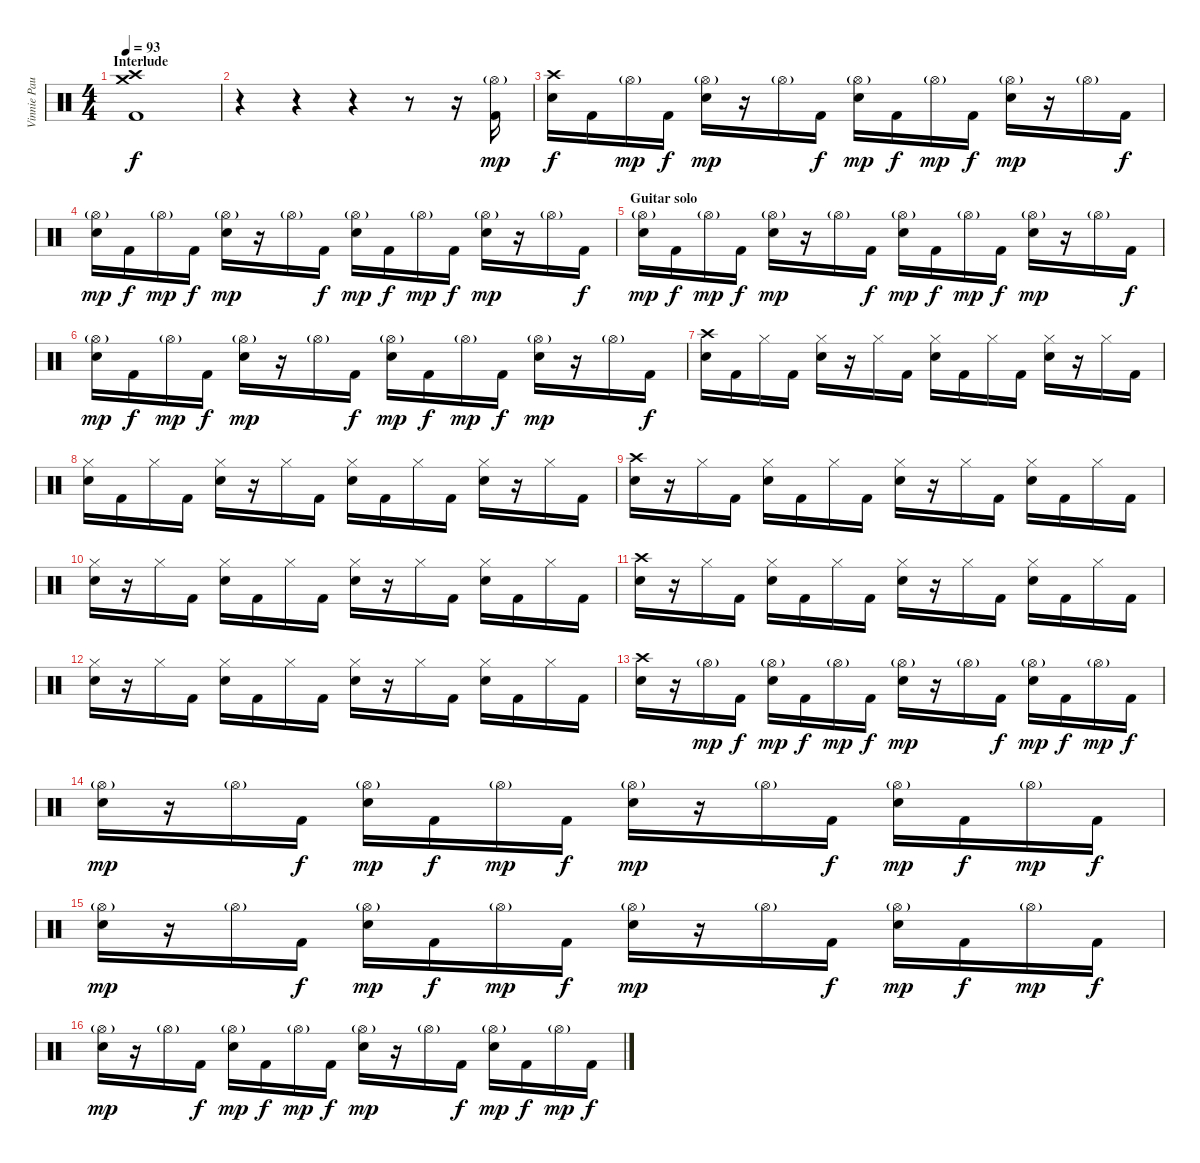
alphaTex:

\track ("Vinnie Paul" "Vinnie Pau") {instrument percussion}
\staff {score}
\articulation defaults
\ts (4 4)
\section ("" "Interlude")
\tempo 93
\clef neutral
\ks c
("Crash high (hit)" "Crash medium (hit)" "Kick (hit) 2").1{dy f} |
r.4 r.4 r.4 r.8 r.16 ("Hi-Hat (open)"{g} "Kick (hit) 2").16{dy mp} |
("Crash high (hit)" "Electric Snare (hit)").16{dy f} "Kick (hit) 2".16 "Hi-Hat (open)"{g}.16{dy mp} "Kick (hit) 2".16{dy f} ("Hi-Hat (open)"{g} "Electric Snare (hit)").16{dy mp} r.16 "Hi-Hat (open)"{g}.16 "Kick (hit) 2".16{dy f} ("Hi-Hat (open)"{g} "Electric Snare (hit)").16{dy mp} "Kick (hit) 2".16{dy f} "Hi-Hat (open)"{g}.16{dy mp} "Kick (hit) 2".16{dy f} ("Hi-Hat (open)"{g} "Electric Snare (hit)").16{dy mp} r.16 "Hi-Hat (open)"{g}.16 "Kick (hit) 2".16{dy f} |
("Hi-Hat (open)"{g} "Electric Snare (hit)").16{dy mp} "Kick (hit) 2".16{dy f} "Hi-Hat (open)"{g}.16{dy mp} "Kick (hit) 2".16{dy f} ("Hi-Hat (open)"{g} "Electric Snare (hit)").16{dy mp} r.16 "Hi-Hat (open)"{g}.16 "Kick (hit) 2".16{dy f} ("Hi-Hat (open)"{g} "Electric Snare (hit)").16{dy mp} "Kick (hit) 2".16{dy f} "Hi-Hat (open)"{g}.16{dy mp} "Kick (hit) 2".16{dy f} ("Hi-Hat (open)"{g} "Electric Snare (hit)").16{dy mp} r.16 "Hi-Hat (open)"{g}.16 "Kick (hit) 2".16{dy f} |
\section ("" "Guitar solo")
("Hi-Hat (open)"{g} "Electric Snare (hit)").16{dy mp} "Kick (hit) 2".16{dy f} "Hi-Hat (open)"{g}.16{dy mp} "Kick (hit) 2".16{dy f} ("Hi-Hat (open)"{g} "Electric Snare (hit)").16{dy mp} r.16 "Hi-Hat (open)"{g}.16 "Kick (hit) 2".16{dy f} ("Hi-Hat (open)"{g} "Electric Snare (hit)").16{dy mp} "Kick (hit) 2".16{dy f} "Hi-Hat (open)"{g}.16{dy mp} "Kick (hit) 2".16{dy f} ("Hi-Hat (open)"{g} "Electric Snare (hit)").16{dy mp} r.16 "Hi-Hat (open)"{g}.16 "Kick (hit) 2".16{dy f} |
("Hi-Hat (open)"{g} "Electric Snare (hit)").16{dy mp} "Kick (hit) 2".16{dy f} "Hi-Hat (open)"{g}.16{dy mp} "Kick (hit) 2".16{dy f} ("Hi-Hat (open)"{g} "Electric Snare (hit)").16{dy mp} r.16 "Hi-Hat (open)"{g}.16 "Kick (hit) 2".16{dy f} ("Hi-Hat (open)"{g} "Electric Snare (hit)").16{dy mp} "Kick (hit) 2".16{dy f} "Hi-Hat (open)"{g}.16{dy mp} "Kick (hit) 2".16{dy f} ("Hi-Hat (open)"{g} "Electric Snare (hit)").16{dy mp} r.16 "Hi-Hat (open)"{g}.16 "Kick (hit) 2".16{dy f} |
("Crash high (hit)" "Electric Snare (hit)").16 "Kick (hit) 2".16 "Hi-Hat (closed)".16 "Kick (hit) 2".16 ("Hi-Hat (closed)" "Electric Snare (hit)").16 r.16 "Hi-Hat (closed)".16 "Kick (hit) 2".16 ("Hi-Hat (closed)" "Electric Snare (hit)").16 "Kick (hit) 2".16 "Hi-Hat (closed)".16 "Kick (hit) 2".16 ("Hi-Hat (closed)" "Electric Snare (hit)").16 r.16 "Hi-Hat (closed)".16 "Kick (hit) 2".16 |
("Hi-Hat (closed)" "Electric Snare (hit)").16 "Kick (hit) 2".16 "Hi-Hat (closed)".16 "Kick (hit) 2".16 ("Hi-Hat (closed)" "Electric Snare (hit)").16 r.16 "Hi-Hat (closed)".16 "Kick (hit) 2".16 ("Hi-Hat (closed)" "Electric Snare (hit)").16 "Kick (hit) 2".16 "Hi-Hat (closed)".16 "Kick (hit) 2".16 ("Hi-Hat (closed)" "Electric Snare (hit)").16 r.16 "Hi-Hat (closed)".16 "Kick (hit) 2".16 |
("Crash high (hit)" "Electric Snare (hit)").16 r.16 "Hi-Hat (closed)".16 "Kick (hit) 2".16 ("Hi-Hat (closed)" "Electric Snare (hit)").16 "Kick (hit) 2".16 "Hi-Hat (closed)".16 "Kick (hit) 2".16 ("Hi-Hat (closed)" "Electric Snare (hit)").16 r.16 "Hi-Hat (closed)".16 "Kick (hit) 2".16 ("Hi-Hat (closed)" "Electric Snare (hit)").16 "Kick (hit) 2".16 "Hi-Hat (closed)".16 "Kick (hit) 2".16 |
("Hi-Hat (closed)" "Electric Snare (hit)").16 r.16 "Hi-Hat (closed)".16 "Kick (hit) 2".16 ("Hi-Hat (closed)" "Electric Snare (hit)").16 "Kick (hit) 2".16 "Hi-Hat (closed)".16 "Kick (hit) 2".16 ("Hi-Hat (closed)" "Electric Snare (hit)").16 r.16 "Hi-Hat (closed)".16 "Kick (hit) 2".16 ("Hi-Hat (closed)" "Electric Snare (hit)").16 "Kick (hit) 2".16 "Hi-Hat (closed)".16 "Kick (hit) 2".16 |
("Crash high (hit)" "Electric Snare (hit)").16 r.16 "Hi-Hat (closed)".16 "Kick (hit) 2".16 ("Hi-Hat (closed)" "Electric Snare (hit)").16 "Kick (hit) 2".16 "Hi-Hat (closed)".16 "Kick (hit) 2".16 ("Hi-Hat (closed)" "Electric Snare (hit)").16 r.16 "Hi-Hat (closed)".16 "Kick (hit) 2".16 ("Hi-Hat (closed)" "Electric Snare (hit)").16 "Kick (hit) 2".16 "Hi-Hat (closed)".16 "Kick (hit) 2".16 |
("Hi-Hat (closed)" "Electric Snare (hit)").16 r.16 "Hi-Hat (closed)".16 "Kick (hit) 2".16 ("Hi-Hat (closed)" "Electric Snare (hit)").16 "Kick (hit) 2".16 "Hi-Hat (closed)".16 "Kick (hit) 2".16 ("Hi-Hat (closed)" "Electric Snare (hit)").16 r.16 "Hi-Hat (closed)".16 "Kick (hit) 2".16 ("Hi-Hat (closed)" "Electric Snare (hit)").16 "Kick (hit) 2".16 "Hi-Hat (closed)".16 "Kick (hit) 2".16 |
("Crash high (hit)" "Electric Snare (hit)").16 r.16 "Hi-Hat (open)"{g}.16{dy mp} "Kick (hit) 2".16{dy f} ("Hi-Hat (open)"{g} "Electric Snare (hit)").16{dy mp} "Kick (hit) 2".16{dy f} "Hi-Hat (open)"{g}.16{dy mp} "Kick (hit) 2".16{dy f} ("Hi-Hat (open)"{g} "Electric Snare (hit)").16{dy mp} r.16 "Hi-Hat (open)"{g}.16 "Kick (hit) 2".16{dy f} ("Hi-Hat (open)"{g} "Electric Snare (hit)").16{dy mp} "Kick (hit) 2".16{dy f} "Hi-Hat (open)"{g}.16{dy mp} "Kick (hit) 2".16{dy f} |
("Hi-Hat (open)"{g} "Electric Snare (hit)").16{dy mp} r.16 "Hi-Hat (open)"{g}.16 "Kick (hit) 2".16{dy f} ("Hi-Hat (open)"{g} "Electric Snare (hit)").16{dy mp} "Kick (hit) 2".16{dy f} "Hi-Hat (open)"{g}.16{dy mp} "Kick (hit) 2".16{dy f} ("Hi-Hat (open)"{g} "Electric Snare (hit)").16{dy mp} r.16 "Hi-Hat (open)"{g}.16 "Kick (hit) 2".16{dy f} ("Hi-Hat (open)"{g} "Electric Snare (hit)").16{dy mp} "Kick (hit) 2".16{dy f} "Hi-Hat (open)"{g}.16{dy mp} "Kick (hit) 2".16{dy f} |
("Hi-Hat (open)"{g} "Electric Snare (hit)").16{dy mp} r.16 "Hi-Hat (open)"{g}.16 "Kick (hit) 2".16{dy f} ("Hi-Hat (open)"{g} "Electric Snare (hit)").16{dy mp} "Kick (hit) 2".16{dy f} "Hi-Hat (open)"{g}.16{dy mp} "Kick (hit) 2".16{dy f} ("Hi-Hat (open)"{g} "Electric Snare (hit)").16{dy mp} r.16 "Hi-Hat (open)"{g}.16 "Kick (hit) 2".16{dy f} ("Hi-Hat (open)"{g} "Electric Snare (hit)").16{dy mp} "Kick (hit) 2".16{dy f} "Hi-Hat (open)"{g}.16{dy mp} "Kick (hit) 2".16{dy f} |
("Hi-Hat (open)"{g} "Electric Snare (hit)").16{dy mp} r.16 "Hi-Hat (open)"{g}.16 "Kick (hit) 2".16{dy f} ("Hi-Hat (open)"{g} "Electric Snare (hit)").16{dy mp} "Kick (hit) 2".16{dy f} "Hi-Hat (open)"{g}.16{dy mp} "Kick (hit) 2".16{dy f} ("Hi-Hat (open)"{g} "Electric Snare (hit)").16{dy mp} r.16 "Hi-Hat (open)"{g}.16 "Kick (hit) 2".16{dy f} ("Hi-Hat (open)"{g} "Electric Snare (hit)").16{dy mp} "Kick (hit) 2".16{dy f} "Hi-Hat (open)"{g}.16{dy mp} "Kick (hit) 2".16{dy f}
